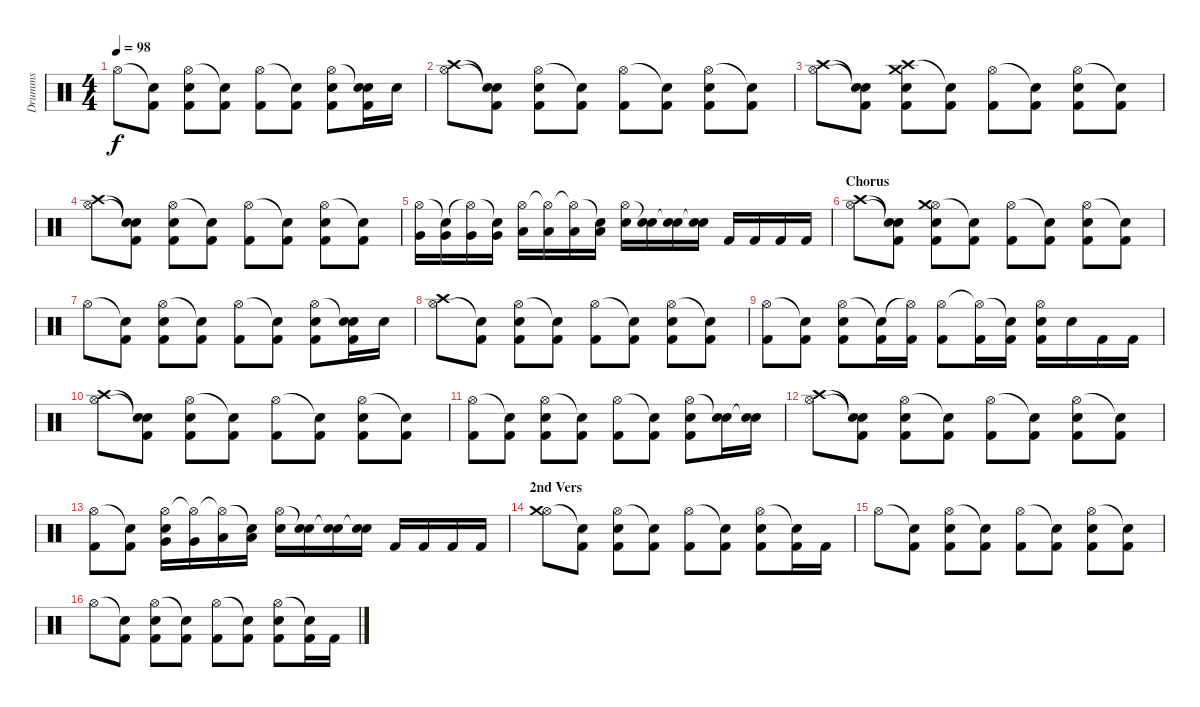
\track ("Drumms" "Drumms") {instrument percussion}
\staff {score}
\articulation defaults
\ts (4 4)
\tempo 98
\clef neutral
\ks c "Hi-Hat (open)".8{dy f volume 13}
("Snare (hit)"{t} "Kick (hit) 2").8 ("Hi-Hat (open)" "Electric Snare (hit)" "Kick (hit) 2").8 ("Snare (hit)"{t} "Kick (hit) 2").8 ("Hi-Hat (open)" "Kick (hit) 2").8 ("Snare (hit)"{t} "Kick (hit) 2").8 ("Hi-Hat (open)" "Electric Snare (hit)" "Kick (hit) 2").8 ("Snare (hit)"{t} "Electric Snare (hit)" "Kick (hit) 2").16 "Electric Snare (hit)".16 |
("Hi-Hat (open)" "Crash high (hit)").8 ("Snare (hit)"{t} "Snare (hit)"{t} "Kick (hit) 2").8 ("Hi-Hat (open)" "Electric Snare (hit)" "Kick (hit) 2").8 ("Snare (hit)"{t} "Kick (hit) 2").8 ("Hi-Hat (open)" "Kick (hit) 2").8 ("Snare (hit)"{t} "Kick (hit) 2").8 ("Hi-Hat (open)" "Electric Snare (hit)" "Kick (hit) 2").8 ("Snare (hit)"{t} "Kick (hit) 2").8 |
("Hi-Hat (open)" "Crash high (hit)").8 ("Snare (hit)"{t} "Snare (hit)"{t} "Kick (hit) 2").8 ("Crash high (hit)" "Electric Snare (hit)" "Kick (hit) 2" "Crash medium (hit)").8 ("Snare (hit)"{t} "Kick (hit) 2").8 ("Hi-Hat (open)" "Kick (hit) 2").8 ("Snare (hit)"{t} "Kick (hit) 2").8 ("Hi-Hat (open)" "Electric Snare (hit)" "Kick (hit) 2").8 ("Snare (hit)"{t} "Kick (hit) 2").8 |
("Hi-Hat (open)" "Crash high (hit)").8 ("Snare (hit)"{t} "Snare (hit)"{t} "Kick (hit) 2").8 ("Hi-Hat (open)" "Electric Snare (hit)" "Kick (hit) 2").8 ("Snare (hit)"{t} "Kick (hit) 2").8 ("Hi-Hat (open)" "Kick (hit) 2").8 ("Snare (hit)"{t} "Kick (hit) 2").8 ("Hi-Hat (open)" "Electric Snare (hit)" "Kick (hit) 2").8 ("Snare (hit)"{t} "Kick (hit) 2").8 |
("Hi-Hat (open)" "Very Low Tom (hit)").16{volume 13} ("Snare (hit)"{t} "Very Low Tom (hit)").16 ("Hi-Hat (open)"{t} "Very Low Tom (hit)").16 ("Snare (hit)"{t} "Very Low Tom (hit)").16 ("Hi-Hat (open)" "Low Tom (hit)").16 ("Hi-Hat (open)"{t} "Low Tom (hit)").16 ("Hi-Hat (open)"{t} "Low Tom (hit)").16 ("Snare (hit)"{t} "Low Tom (hit)").16 ("Hi-Hat (open)" "Electric Snare (hit)").16 ("Snare (hit)"{t} "Electric Snare (hit)").16 ("Snare (hit)"{t} "Snare (hit) 2").16 ("Snare (hit)"{t} "Snare (hit) 2").16 "Kick (hit) 2".16 "Kick (hit) 2".16 "Kick (hit) 2".16 "Kick (hit) 2".16 |
\section ("" "Chorus")
("Hi-Hat (open)" "Crash high (hit)").8 ("Snare (hit)"{t} "Snare (hit)"{t} "Kick (hit) 2").8 ("Hi-Hat (open)" "Electric Snare (hit)" "Kick (hit) 2" "Crash medium (hit)").8 ("Snare (hit)"{t} "Kick (hit) 2").8 ("Hi-Hat (open)" "Kick (hit) 2").8 ("Snare (hit)"{t} "Kick (hit) 2").8 ("Hi-Hat (open)" "Electric Snare (hit)" "Kick (hit) 2").8 ("Snare (hit)"{t} "Kick (hit) 2").8 |
"Hi-Hat (open)".8{volume 13} ("Snare (hit)"{t} "Kick (hit) 2").8 ("Hi-Hat (open)" "Electric Snare (hit)" "Kick (hit) 2").8 ("Snare (hit)"{t} "Kick (hit) 2").8 ("Hi-Hat (open)" "Kick (hit) 2").8 ("Snare (hit)"{t} "Kick (hit) 2").8 ("Hi-Hat (open)" "Electric Snare (hit)" "Kick (hit) 2").8 ("Snare (hit)"{t} "Electric Snare (hit)" "Kick (hit) 2").16 "Electric Snare (hit)".16 |
("Hi-Hat (open)" "Crash high (hit)").8{volume 13} ("Snare (hit)"{t} "Kick (hit) 2").8 ("Hi-Hat (open)" "Electric Snare (hit)" "Kick (hit) 2").8 ("Snare (hit)"{t} "Kick (hit) 2").8 ("Hi-Hat (open)" "Kick (hit) 2").8 ("Snare (hit)"{t} "Kick (hit) 2").8 ("Hi-Hat (open)" "Electric Snare (hit)" "Kick (hit) 2").8 ("Snare (hit)"{t} "Kick (hit) 2").8 |
("Hi-Hat (open)" "Kick (hit) 2").8{volume 13} ("Snare (hit)"{t} "Kick (hit) 2").8 ("Hi-Hat (open)" "Electric Snare (hit)" "Kick (hit) 2").8 ("Snare (hit)"{t} "Kick (hit) 2").16 ("Hi-Hat (open)"{t} "Kick (hit) 2").16 ("Hi-Hat (open)" "Kick (hit) 2").8 ("Hi-Hat (open)"{t} "Kick (hit) 2").16 ("Snare (hit)"{t} "Kick (hit) 2").16 ("Hi-Hat (open)" "Electric Snare (hit)" "Kick (hit) 2").16 "Electric Snare (hit)".16 "Kick (hit) 2".16 "Kick (hit) 2".16 |
("Hi-Hat (open)" "Crash high (hit)").8 ("Snare (hit)"{t} "Snare (hit)"{t} "Kick (hit) 2").8 ("Hi-Hat (open)" "Electric Snare (hit)" "Kick (hit) 2").8 ("Snare (hit)"{t} "Kick (hit) 2").8 ("Hi-Hat (open)" "Kick (hit) 2").8 ("Snare (hit)"{t} "Kick (hit) 2").8 ("Hi-Hat (open)" "Electric Snare (hit)" "Kick (hit) 2").8 ("Snare (hit)"{t} "Kick (hit) 2").8 |
("Hi-Hat (open)" "Kick (hit) 2").8{volume 13} ("Snare (hit)"{t} "Kick (hit) 2").8 ("Hi-Hat (open)" "Electric Snare (hit)" "Kick (hit) 2").8 ("Snare (hit)"{t} "Kick (hit) 2").8 ("Hi-Hat (open)" "Kick (hit) 2").8 ("Snare (hit)"{t} "Kick (hit) 2").8 ("Hi-Hat (open)" "Electric Snare (hit)" "Kick (hit) 2").8 ("Snare (hit)"{t} "Electric Snare (hit)").16 ("Snare (hit)"{t} "Electric Snare (hit)").16 |
("Hi-Hat (open)" "Crash high (hit)").8 ("Snare (hit)"{t} "Snare (hit)"{t} "Kick (hit) 2").8 ("Hi-Hat (open)" "Electric Snare (hit)" "Kick (hit) 2").8 ("Snare (hit)"{t} "Kick (hit) 2").8 ("Hi-Hat (open)" "Kick (hit) 2").8 ("Snare (hit)"{t} "Kick (hit) 2").8 ("Hi-Hat (open)" "Electric Snare (hit)" "Kick (hit) 2").8 ("Snare (hit)"{t} "Kick (hit) 2").8 |
("Hi-Hat (open)" "Kick (hit) 2").8{volume 13} ("Snare (hit)"{t} "Kick (hit) 2").8 ("Hi-Hat (open)" "Electric Snare (hit)" "Very Low Tom (hit)").16 ("Hi-Hat (open)"{t} "Very Low Tom (hit)").16 ("Hi-Hat (open)"{t} "Low Tom (hit)").16 ("Snare (hit)"{t} "Low Tom (hit)").16 ("Hi-Hat (open)" "Electric Snare (hit)").16 ("Snare (hit)"{t} "Electric Snare (hit)").16 ("Snare (hit)"{t} "Snare (hit) 2").16 ("Snare (hit)"{t} "Snare (hit) 2").16 "Kick (hit) 2".16 "Kick (hit) 2".16 "Kick (hit) 2".16 "Kick (hit) 2".16 |
\section ("" "2nd Vers")
("Hi-Hat (open)" "Crash medium (hit)").8 ("Snare (hit)"{t} "Kick (hit) 2").8 ("Hi-Hat (open)" "Electric Snare (hit)" "Kick (hit) 2").8 ("Snare (hit)"{t} "Kick (hit) 2").8 ("Hi-Hat (open)" "Kick (hit) 2").8 ("Snare (hit)"{t} "Kick (hit) 2").8 ("Hi-Hat (open)" "Electric Snare (hit)" "Kick (hit) 2").8 ("Snare (hit)"{t} "Kick (hit) 2").16 "Kick (hit) 2".16 |
"Hi-Hat (open)".8{volume 13} ("Snare (hit)"{t} "Kick (hit) 2").8 ("Hi-Hat (open)" "Electric Snare (hit)" "Kick (hit) 2").8 ("Snare (hit)"{t} "Kick (hit) 2").8 ("Hi-Hat (open)" "Kick (hit) 2").8 ("Snare (hit)"{t} "Kick (hit) 2").8 ("Hi-Hat (open)" "Electric Snare (hit)" "Kick (hit) 2").8 ("Snare (hit)"{t} "Kick (hit) 2").8 |
"Hi-Hat (open)".8 ("Snare (hit)"{t} "Kick (hit) 2").8 ("Hi-Hat (open)" "Electric Snare (hit)" "Kick (hit) 2").8 ("Snare (hit)"{t} "Kick (hit) 2").8 ("Hi-Hat (open)" "Kick (hit) 2").8 ("Snare (hit)"{t} "Kick (hit) 2").8 ("Hi-Hat (open)" "Electric Snare (hit)" "Kick (hit) 2").8 ("Snare (hit)"{t} "Kick (hit) 2").16 "Kick (hit) 2".16
